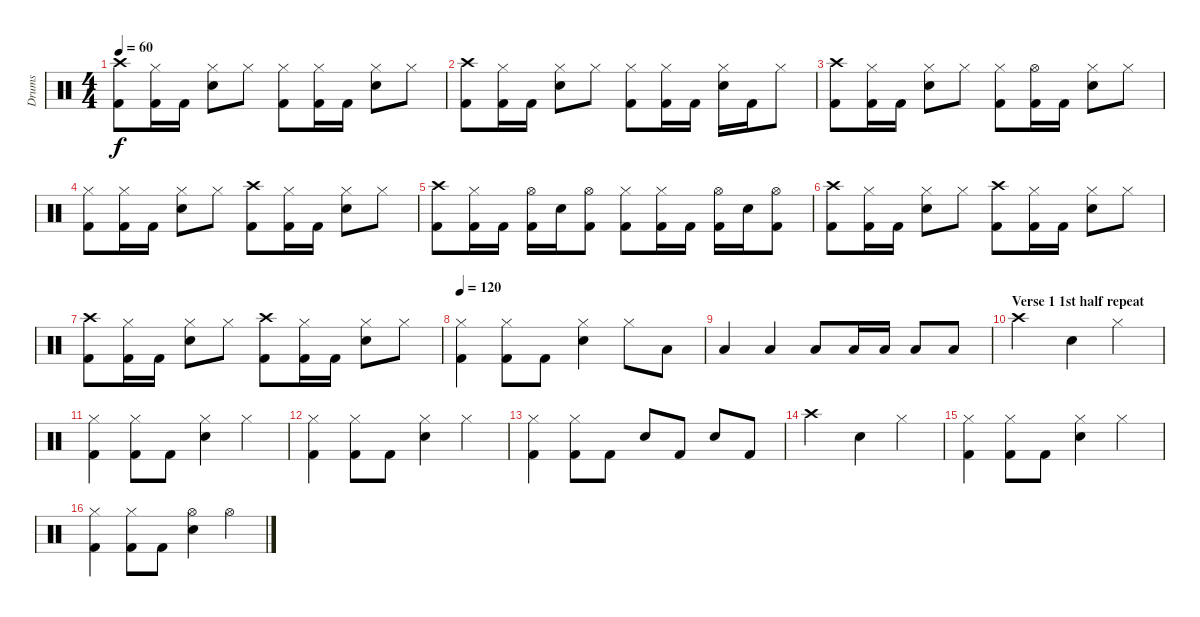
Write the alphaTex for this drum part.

\track ("Drums" "Drums") {instrument percussion}
\staff {score}
\articulation defaults
\ts (4 4)
\tempo 60
\clef neutral
\ks c
("Crash high (hit)" "Kick (hit) 2").8{dy f} ("Hi-Hat (closed)" "Kick (hit) 2").16 "Kick (hit) 2".16 ("Hi-Hat (closed)" "Snare (hit) 2").8 "Hi-Hat (closed)".8 ("Hi-Hat (closed)" "Kick (hit) 2").8 ("Hi-Hat (closed)" "Kick (hit) 2").16 "Kick (hit) 2".16 ("Hi-Hat (closed)" "Snare (hit) 2").8 "Hi-Hat (closed)".8 |
("Crash high (hit)" "Kick (hit) 2").8 ("Hi-Hat (closed)" "Kick (hit) 2").16 "Kick (hit) 2".16 ("Hi-Hat (closed)" "Snare (hit) 2").8 "Hi-Hat (closed)".8 ("Hi-Hat (closed)" "Kick (hit) 2").8 ("Hi-Hat (closed)" "Kick (hit) 2").16 "Kick (hit) 2".16 ("Hi-Hat (closed)" "Snare (hit) 2").16 "Kick (hit) 2".16 "Hi-Hat (closed)".8 |
("Crash high (hit)" "Kick (hit) 2").8 ("Hi-Hat (closed)" "Kick (hit) 2").16 "Kick (hit) 2".16 ("Hi-Hat (closed)" "Snare (hit) 2").8 "Hi-Hat (closed)".8 ("Hi-Hat (closed)" "Kick (hit) 2").8 ("Hi-Hat (open)" "Kick (hit) 2").16 "Kick (hit) 2".16 ("Hi-Hat (closed)" "Snare (hit) 2").8 "Hi-Hat (closed)".8 |
("Hi-Hat (closed)" "Kick (hit) 2").8 ("Hi-Hat (closed)" "Kick (hit) 2").16 "Kick (hit) 2".16 ("Hi-Hat (closed)" "Snare (hit) 2").8 "Hi-Hat (closed)".8 ("Crash high (hit)" "Kick (hit) 2").8 ("Hi-Hat (closed)" "Kick (hit) 2").16 "Kick (hit) 2".16 ("Hi-Hat (closed)" "Snare (hit) 2").8 "Hi-Hat (closed)".8 |
("Crash high (hit)" "Kick (hit) 2").8 ("Hi-Hat (closed)" "Kick (hit) 2").16 "Kick (hit) 2".16 ("Hi-Hat (open)" "Kick (hit) 2").16 "Snare (hit) 2".16 ("Hi-Hat (open)" "Kick (hit) 2").8 ("Hi-Hat (closed)" "Kick (hit) 2").8 ("Hi-Hat (closed)" "Kick (hit) 2").16 "Kick (hit) 2".16 ("Hi-Hat (open)" "Kick (hit) 2").16 "Snare (hit) 2".16 ("Hi-Hat (open)" "Kick (hit) 2").8 |
("Crash high (hit)" "Kick (hit) 2").8 ("Hi-Hat (closed)" "Kick (hit) 2").16 "Kick (hit) 2".16 ("Hi-Hat (closed)" "Snare (hit) 2").8 "Hi-Hat (closed)".8 ("Crash high (hit)" "Kick (hit) 2").8 ("Hi-Hat (closed)" "Kick (hit) 2").16 "Kick (hit) 2".16 ("Hi-Hat (closed)" "Snare (hit) 2").8 "Hi-Hat (closed)".8 |
("Crash high (hit)" "Kick (hit) 2").8 ("Hi-Hat (closed)" "Kick (hit) 2").16 "Kick (hit) 2".16 ("Hi-Hat (closed)" "Snare (hit) 2").8 "Hi-Hat (closed)".8 ("Crash high (hit)" "Kick (hit) 2").8 ("Hi-Hat (closed)" "Kick (hit) 2").16 "Kick (hit) 2".16 ("Hi-Hat (closed)" "Snare (hit) 2").8 "Hi-Hat (closed)".8 |
\tempo 120
("Hi-Hat (closed)" "Kick (hit) 2").4 ("Hi-Hat (closed)" "Kick (hit) 2").8 "Kick (hit) 2".8 ("Hi-Hat (closed)" "Snare (hit) 2").4 "Hi-Hat (closed)".8 "Low Tom (hit)".8 |
"Low Tom (hit)".4 "Low Tom (hit)".4 "Low Tom (hit)".8 "Low Tom (hit)".16 "Low Tom (hit)".16 "Low Tom (hit)".8 "Low Tom (hit)".8 |
\section ("" "Verse 1 1st half repeat")
"Crash high (hit)".2 "Snare (hit) 2".4 "Hi-Hat (closed)".4 |
("Hi-Hat (closed)" "Kick (hit) 2").4 ("Hi-Hat (closed)" "Kick (hit) 2").8 "Kick (hit) 2".8 ("Hi-Hat (closed)" "Snare (hit) 2").4 "Hi-Hat (closed)".4 |
("Hi-Hat (closed)" "Kick (hit) 2").4 ("Hi-Hat (closed)" "Kick (hit) 2").8 "Kick (hit) 2".8 ("Hi-Hat (closed)" "Snare (hit) 2").4 "Hi-Hat (closed)".4 |
("Hi-Hat (closed)" "Kick (hit) 2").4 ("Hi-Hat (closed)" "Kick (hit) 2").8 "Kick (hit) 2".8 "Snare (hit) 2".8 "Kick (hit) 2".8 "Snare (hit) 2".8 "Kick (hit) 2".8 |
"Crash high (hit)".2 "Snare (hit) 2".4 "Hi-Hat (closed)".4 |
("Hi-Hat (closed)" "Kick (hit) 2").4 ("Hi-Hat (closed)" "Kick (hit) 2").8 "Kick (hit) 2".8 ("Hi-Hat (closed)" "Snare (hit) 2").4 "Hi-Hat (closed)".4 |
("Hi-Hat (closed)" "Kick (hit) 2").4 ("Hi-Hat (closed)" "Kick (hit) 2").8 "Kick (hit) 2".8 ("Hi-Hat (open)" "Snare (hit) 2").4 "Hi-Hat (open)".4
